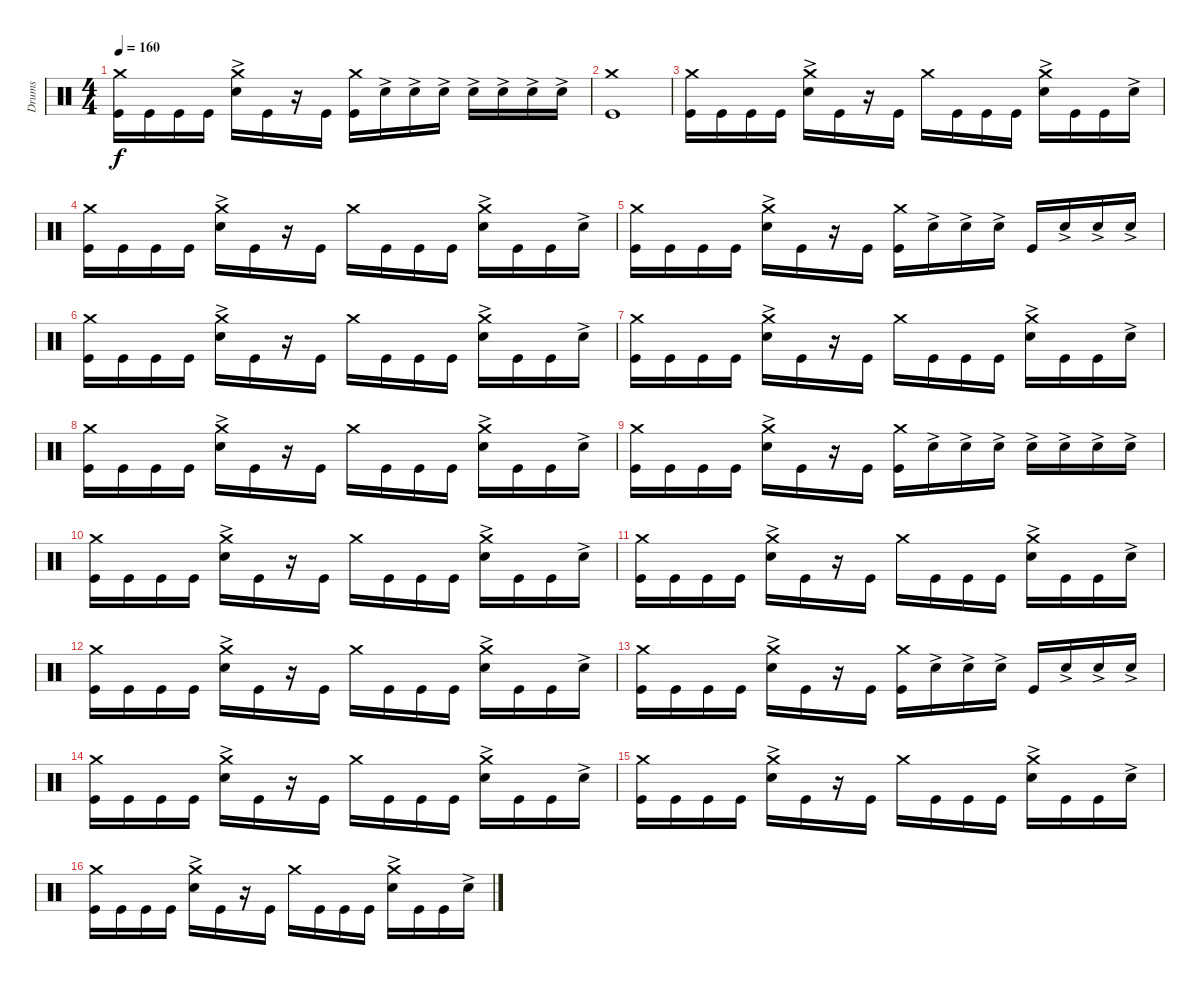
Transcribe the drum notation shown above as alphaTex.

\track ("Drums" "Drums") {instrument percussion}
\staff {score}
\articulation defaults
\ts (4 4)
\tempo 160
\clef neutral
\ks c
("Crash medium (hit)" "Kick (hit)").16{dy f} "Kick (hit)".16 "Kick (hit)".16 "Kick (hit)".16 ("Crash medium (hit)" "Snare (hit) 2"{ac}).16 "Kick (hit)".16 r.16 "Kick (hit)".16 ("Kick (hit)" "Crash medium (hit)").16 "Snare (hit) 2"{ac}.16 "Snare (hit) 2"{ac}.16 "Snare (hit) 2"{ac}.16 "Snare (hit) 2"{ac}.16 "Snare (hit) 2"{ac}.16 "Snare (hit) 2"{ac}.16 "Snare (hit) 2"{ac}.16 |
("Crash medium (hit)" "Kick (hit)").1 |
("Crash medium (hit)" "Kick (hit)").16 "Kick (hit)".16 "Kick (hit)".16 "Kick (hit)".16 ("Crash medium (hit)" "Snare (hit) 2"{ac}).16 "Kick (hit)".16 r.16 "Kick (hit)".16 "Crash medium (hit)".16 "Kick (hit)".16 "Kick (hit)".16 "Kick (hit)".16 ("Crash medium (hit)" "Snare (hit) 2"{ac}).16 "Kick (hit)".16 "Kick (hit)".16 "Snare (hit) 2"{ac}.16 |
("Crash medium (hit)" "Kick (hit)").16 "Kick (hit)".16 "Kick (hit)".16 "Kick (hit)".16 ("Crash medium (hit)" "Snare (hit) 2"{ac}).16 "Kick (hit)".16 r.16 "Kick (hit)".16 "Crash medium (hit)".16 "Kick (hit)".16 "Kick (hit)".16 "Kick (hit)".16 ("Crash medium (hit)" "Snare (hit) 2"{ac}).16 "Kick (hit)".16 "Kick (hit)".16 "Snare (hit) 2"{ac}.16 |
("Crash medium (hit)" "Kick (hit)").16 "Kick (hit)".16 "Kick (hit)".16 "Kick (hit)".16 ("Crash medium (hit)" "Snare (hit) 2"{ac}).16 "Kick (hit)".16 r.16 "Kick (hit)".16 ("Kick (hit)" "Crash medium (hit)").16 "Snare (hit) 2"{ac}.16 "Snare (hit) 2"{ac}.16 "Snare (hit) 2"{ac}.16 "Kick (hit)".16 "Snare (hit) 2"{ac}.16 "Snare (hit) 2"{ac}.16 "Snare (hit) 2"{ac}.16 |
("Crash medium (hit)" "Kick (hit)").16 "Kick (hit)".16 "Kick (hit)".16 "Kick (hit)".16 ("Crash medium (hit)" "Snare (hit) 2"{ac}).16 "Kick (hit)".16 r.16 "Kick (hit)".16 "Crash medium (hit)".16 "Kick (hit)".16 "Kick (hit)".16 "Kick (hit)".16 ("Crash medium (hit)" "Snare (hit) 2"{ac}).16 "Kick (hit)".16 "Kick (hit)".16 "Snare (hit) 2"{ac}.16 |
("Crash medium (hit)" "Kick (hit)").16 "Kick (hit)".16 "Kick (hit)".16 "Kick (hit)".16 ("Crash medium (hit)" "Snare (hit) 2"{ac}).16 "Kick (hit)".16 r.16 "Kick (hit)".16 "Crash medium (hit)".16 "Kick (hit)".16 "Kick (hit)".16 "Kick (hit)".16 ("Crash medium (hit)" "Snare (hit) 2"{ac}).16 "Kick (hit)".16 "Kick (hit)".16 "Snare (hit) 2"{ac}.16 |
("Crash medium (hit)" "Kick (hit)").16 "Kick (hit)".16 "Kick (hit)".16 "Kick (hit)".16 ("Crash medium (hit)" "Snare (hit) 2"{ac}).16 "Kick (hit)".16 r.16 "Kick (hit)".16 "Crash medium (hit)".16 "Kick (hit)".16 "Kick (hit)".16 "Kick (hit)".16 ("Crash medium (hit)" "Snare (hit) 2"{ac}).16 "Kick (hit)".16 "Kick (hit)".16 "Snare (hit) 2"{ac}.16 |
("Crash medium (hit)" "Kick (hit)").16 "Kick (hit)".16 "Kick (hit)".16 "Kick (hit)".16 ("Crash medium (hit)" "Snare (hit) 2"{ac}).16 "Kick (hit)".16 r.16 "Kick (hit)".16 ("Kick (hit)" "Crash medium (hit)").16 "Snare (hit) 2"{ac}.16 "Snare (hit) 2"{ac}.16 "Snare (hit) 2"{ac}.16 "Snare (hit) 2"{ac}.16 "Snare (hit) 2"{ac}.16 "Snare (hit) 2"{ac}.16 "Snare (hit) 2"{ac}.16 |
("Crash medium (hit)" "Kick (hit)").16 "Kick (hit)".16 "Kick (hit)".16 "Kick (hit)".16 ("Crash medium (hit)" "Snare (hit) 2"{ac}).16 "Kick (hit)".16 r.16 "Kick (hit)".16 "Crash medium (hit)".16 "Kick (hit)".16 "Kick (hit)".16 "Kick (hit)".16 ("Crash medium (hit)" "Snare (hit) 2"{ac}).16 "Kick (hit)".16 "Kick (hit)".16 "Snare (hit) 2"{ac}.16 |
("Crash medium (hit)" "Kick (hit)").16 "Kick (hit)".16 "Kick (hit)".16 "Kick (hit)".16 ("Crash medium (hit)" "Snare (hit) 2"{ac}).16 "Kick (hit)".16 r.16 "Kick (hit)".16 "Crash medium (hit)".16 "Kick (hit)".16 "Kick (hit)".16 "Kick (hit)".16 ("Crash medium (hit)" "Snare (hit) 2"{ac}).16 "Kick (hit)".16 "Kick (hit)".16 "Snare (hit) 2"{ac}.16 |
("Crash medium (hit)" "Kick (hit)").16 "Kick (hit)".16 "Kick (hit)".16 "Kick (hit)".16 ("Crash medium (hit)" "Snare (hit) 2"{ac}).16 "Kick (hit)".16 r.16 "Kick (hit)".16 "Crash medium (hit)".16 "Kick (hit)".16 "Kick (hit)".16 "Kick (hit)".16 ("Crash medium (hit)" "Snare (hit) 2"{ac}).16 "Kick (hit)".16 "Kick (hit)".16 "Snare (hit) 2"{ac}.16 |
("Crash medium (hit)" "Kick (hit)").16 "Kick (hit)".16 "Kick (hit)".16 "Kick (hit)".16 ("Crash medium (hit)" "Snare (hit) 2"{ac}).16 "Kick (hit)".16 r.16 "Kick (hit)".16 ("Kick (hit)" "Crash medium (hit)").16 "Snare (hit) 2"{ac}.16 "Snare (hit) 2"{ac}.16 "Snare (hit) 2"{ac}.16 "Kick (hit)".16 "Snare (hit) 2"{ac}.16 "Snare (hit) 2"{ac}.16 "Snare (hit) 2"{ac}.16 |
("Crash medium (hit)" "Kick (hit)").16 "Kick (hit)".16 "Kick (hit)".16 "Kick (hit)".16 ("Crash medium (hit)" "Snare (hit) 2"{ac}).16 "Kick (hit)".16 r.16 "Kick (hit)".16 "Crash medium (hit)".16 "Kick (hit)".16 "Kick (hit)".16 "Kick (hit)".16 ("Crash medium (hit)" "Snare (hit) 2"{ac}).16 "Kick (hit)".16 "Kick (hit)".16 "Snare (hit) 2"{ac}.16 |
("Crash medium (hit)" "Kick (hit)").16 "Kick (hit)".16 "Kick (hit)".16 "Kick (hit)".16 ("Crash medium (hit)" "Snare (hit) 2"{ac}).16 "Kick (hit)".16 r.16 "Kick (hit)".16 "Crash medium (hit)".16 "Kick (hit)".16 "Kick (hit)".16 "Kick (hit)".16 ("Crash medium (hit)" "Snare (hit) 2"{ac}).16 "Kick (hit)".16 "Kick (hit)".16 "Snare (hit) 2"{ac}.16 |
("Crash medium (hit)" "Kick (hit)").16 "Kick (hit)".16 "Kick (hit)".16 "Kick (hit)".16 ("Crash medium (hit)" "Snare (hit) 2"{ac}).16 "Kick (hit)".16 r.16 "Kick (hit)".16 "Crash medium (hit)".16 "Kick (hit)".16 "Kick (hit)".16 "Kick (hit)".16 ("Crash medium (hit)" "Snare (hit) 2"{ac}).16 "Kick (hit)".16 "Kick (hit)".16 "Snare (hit) 2"{ac}.16
